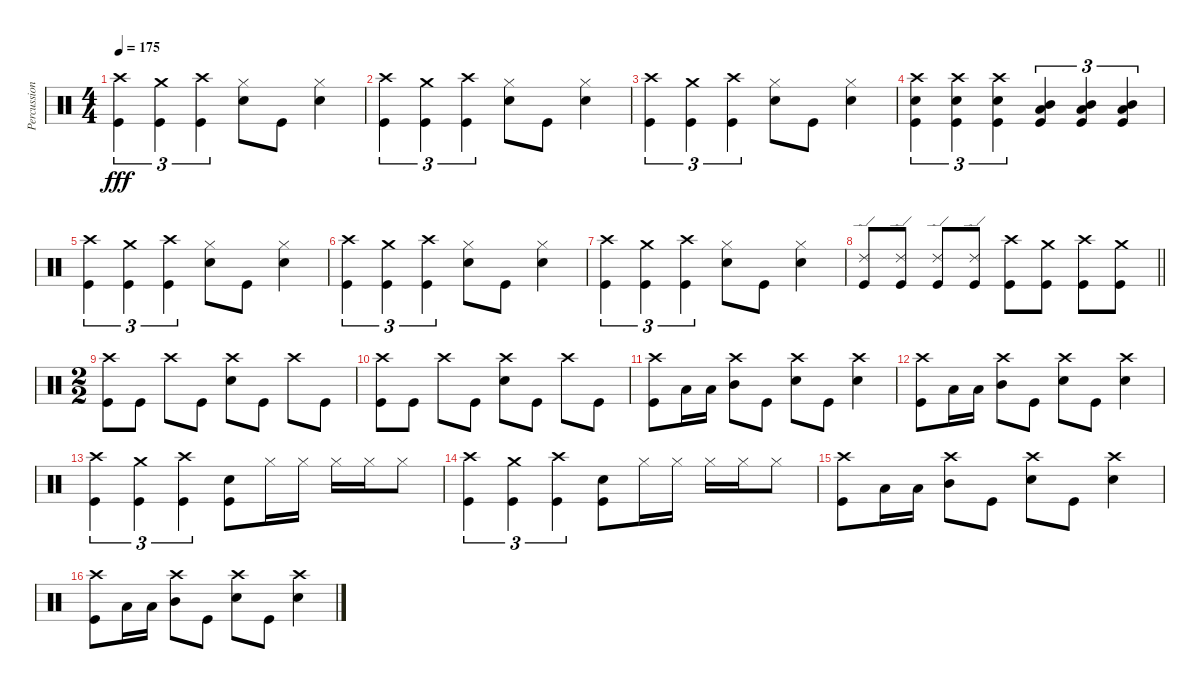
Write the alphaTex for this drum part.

\track ("Percussion" "Percussion") {instrument percussion}
\staff {score}
\articulation defaults
\ts (4 4)
\tempo 175
\clef neutral
\ks c
("Crash high (hit)" "Kick (hit)").4{tu (3 2) dy fff} ("Crash medium (hit)" "Kick (hit)").4{tu (3 2)} ("Crash high (hit)" "Kick (hit)").4{tu (3 2)} ("Snare (hit) 2" "Hi-Hat (closed)").8 "Kick (hit)".8 ("Snare (hit) 2" "Hi-Hat (closed)").4 |
("Crash high (hit)" "Kick (hit)").4{tu (3 2)} ("Crash medium (hit)" "Kick (hit)").4{tu (3 2)} ("Crash high (hit)" "Kick (hit)").4{tu (3 2)} ("Snare (hit) 2" "Hi-Hat (closed)").8 "Kick (hit)".8 ("Snare (hit) 2" "Hi-Hat (closed)").4 |
("Crash high (hit)" "Kick (hit)").4{tu (3 2)} ("Crash medium (hit)" "Kick (hit)").4{tu (3 2)} ("Crash high (hit)" "Kick (hit)").4{tu (3 2)} ("Snare (hit) 2" "Hi-Hat (closed)").8 "Kick (hit)".8 ("Snare (hit) 2" "Hi-Hat (closed)").4 |
("Crash high (hit)" "Snare (hit) 2" "Kick (hit)").4{tu (3 2)} ("Crash high (hit)" "Snare (hit) 2" "Kick (hit)").4{tu (3 2)} ("Crash high (hit)" "Snare (hit) 2" "Kick (hit)").4{tu (3 2)} ("Mid Tom (hit)" "Low Tom (hit)" "Kick (hit)").4{tu (3 2)} ("Mid Tom (hit)" "Low Tom (hit)" "Kick (hit)").4{tu (3 2)} ("Mid Tom (hit)" "Low Tom (hit)" "Kick (hit)").4{tu (3 2)} |
("Crash high (hit)" "Kick (hit)").4{tu (3 2)} ("Crash medium (hit)" "Kick (hit)").4{tu (3 2)} ("Crash high (hit)" "Kick (hit)").4{tu (3 2)} ("Snare (hit) 2" "Hi-Hat (closed)").8 "Kick (hit)".8 ("Snare (hit) 2" "Hi-Hat (closed)").4 |
("Crash high (hit)" "Kick (hit)").4{tu (3 2)} ("Crash medium (hit)" "Kick (hit)").4{tu (3 2)} ("Crash high (hit)" "Kick (hit)").4{tu (3 2)} ("Snare (hit) 2" "Hi-Hat (closed)").8 "Kick (hit)".8 ("Snare (hit) 2" "Hi-Hat (closed)").4 |
("Crash high (hit)" "Kick (hit)").4{tu (3 2)} ("Crash medium (hit)" "Kick (hit)").4{tu (3 2)} ("Crash high (hit)" "Kick (hit)").4{tu (3 2)} ("Snare (hit) 2" "Hi-Hat (closed)").8 "Kick (hit)".8 ("Snare (hit) 2" "Hi-Hat (closed)").4 |
\barLineRight lightlight
("Ride (edge) 2" "Kick (hit)").8 ("Ride (edge) 2" "Kick (hit)").8 ("Ride (edge) 2" "Kick (hit)").8 ("Ride (edge) 2" "Kick (hit)").8 ("Crash high (hit)" "Kick (hit)").8 ("Crash medium (hit)" "Kick (hit)").8 ("Crash high (hit)" "Kick (hit)").8 ("Crash medium (hit)" "Kick (hit)").8 |
\ts (2 2)
("Crash high (hit)" "Kick (hit)").8 "Kick (hit)".8 "Crash high (hit)".8 "Kick (hit)".8 ("Crash high (hit)" "Snare (hit) 2").8 "Kick (hit)".8 "Crash high (hit)".8 "Kick (hit)".8 |
("Crash high (hit)" "Kick (hit)").8 "Kick (hit)".8 "Crash high (hit)".8 "Kick (hit)".8 ("Crash high (hit)" "Snare (hit) 2").8 "Kick (hit)".8 "Crash high (hit)".8 "Kick (hit)".8 |
("Kick (hit)" "Crash high (hit)").8 "Low Tom (hit)".16 "Low Tom (hit)".16 ("Mid Tom (hit)" "Crash high (hit)").8 "Kick (hit)".8 ("Snare (hit) 2" "Crash high (hit)").8 "Kick (hit)".8 ("Snare (hit) 2" "Crash high (hit)").4 |
("Kick (hit)" "Crash high (hit)").8 "Low Tom (hit)".16 "Low Tom (hit)".16 ("Mid Tom (hit)" "Crash high (hit)").8 "Kick (hit)".8 ("Snare (hit) 2" "Crash high (hit)").8 "Kick (hit)".8 ("Snare (hit) 2" "Crash high (hit)").4 |
("Kick (hit)" "Crash high (hit)").4{tu (3 2)} ("Kick (hit)" "Crash medium (hit)").4{tu (3 2)} ("Kick (hit)" "Crash high (hit)").4{tu (3 2)} ("Snare (hit) 2" "Kick (hit)").8 "Hi-Hat (closed)".16 "Hi-Hat (closed)".16 "Hi-Hat (closed)".16 "Hi-Hat (closed)".16 "Hi-Hat (closed)".8 |
("Kick (hit)" "Crash high (hit)").4{tu (3 2)} ("Kick (hit)" "Crash medium (hit)").4{tu (3 2)} ("Kick (hit)" "Crash high (hit)").4{tu (3 2)} ("Snare (hit) 2" "Kick (hit)").8 "Hi-Hat (closed)".16 "Hi-Hat (closed)".16 "Hi-Hat (closed)".16 "Hi-Hat (closed)".16 "Hi-Hat (closed)".8 |
("Kick (hit)" "Crash high (hit)").8 "Low Tom (hit)".16 "Low Tom (hit)".16 ("Mid Tom (hit)" "Crash high (hit)").8 "Kick (hit)".8 ("Snare (hit) 2" "Crash high (hit)").8 "Kick (hit)".8 ("Snare (hit) 2" "Crash high (hit)").4 |
("Kick (hit)" "Crash high (hit)").8 "Low Tom (hit)".16 "Low Tom (hit)".16 ("Mid Tom (hit)" "Crash high (hit)").8 "Kick (hit)".8 ("Snare (hit) 2" "Crash high (hit)").8 "Kick (hit)".8 ("Snare (hit) 2" "Crash high (hit)").4
